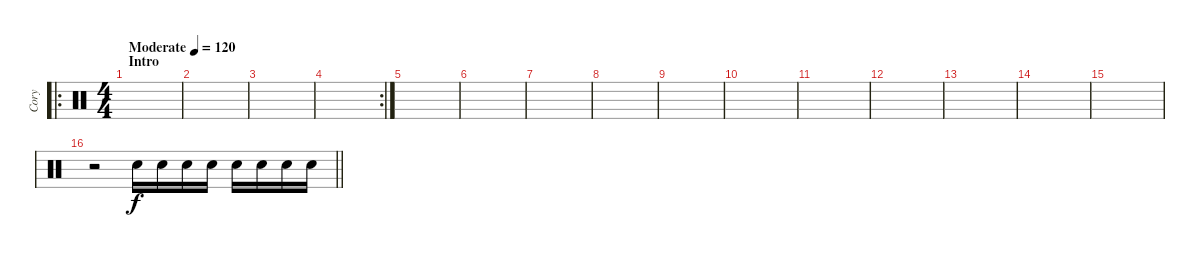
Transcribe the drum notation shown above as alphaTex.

\track ("Cory" "Cory") {instrument percussion}
\staff {score}
\articulation defaults
\ro
\ts (4 4)
\section ("" "Intro")
\tempo (120 "Moderate")
\clef neutral
\ks c
|
|
|
\rc 2
|
|
|
|
|
|
|
|
|
|
|
|
\barLineRight lightlight
r.2 "Snare (hit) 2".16 "Snare (hit) 2".16 "Snare (hit) 2".16 "Snare (hit) 2".16 "Snare (hit) 2".16 "Snare (hit) 2".16 "Snare (hit) 2".16 "Snare (hit) 2".16
